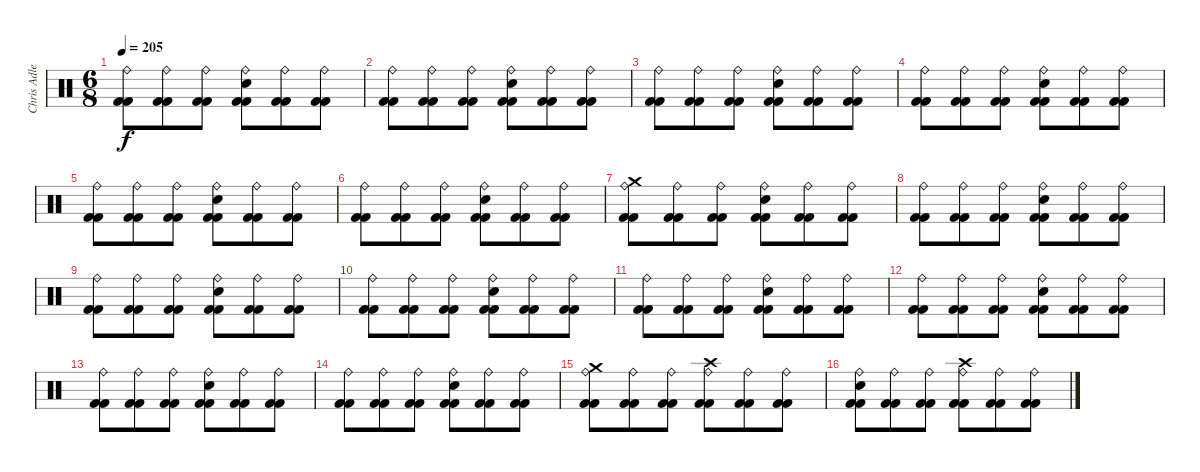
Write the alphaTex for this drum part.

\track ("Chris Adler" "Chris Adle") {instrument percussion}
\staff {score}
\articulation defaults
\ts (6 8)
\tempo 205
\clef neutral
\ks c
("Ride (bell)" "Kick (hit) 2" "Kick (hit) 2").8{dy f} ("Ride (bell)" "Kick (hit) 2" "Kick (hit) 2").8 ("Ride (bell)" "Kick (hit) 2" "Kick (hit) 2").8 ("Ride (bell)" "Electric Snare (hit)" "Kick (hit) 2" "Kick (hit) 2").8 ("Ride (bell)" "Kick (hit) 2" "Kick (hit) 2").8 ("Ride (bell)" "Kick (hit) 2" "Kick (hit) 2").8 |
("Ride (bell)" "Kick (hit) 2" "Kick (hit) 2").8 ("Ride (bell)" "Kick (hit) 2" "Kick (hit) 2").8 ("Ride (bell)" "Kick (hit) 2" "Kick (hit) 2").8 ("Ride (bell)" "Electric Snare (hit)" "Kick (hit) 2" "Kick (hit) 2").8 ("Ride (bell)" "Kick (hit) 2" "Kick (hit) 2").8 ("Ride (bell)" "Kick (hit) 2" "Kick (hit) 2").8 |
("Ride (bell)" "Kick (hit) 2" "Kick (hit) 2").8 ("Ride (bell)" "Kick (hit) 2" "Kick (hit) 2").8 ("Ride (bell)" "Kick (hit) 2" "Kick (hit) 2").8 ("Ride (bell)" "Electric Snare (hit)" "Kick (hit) 2" "Kick (hit) 2").8 ("Ride (bell)" "Kick (hit) 2" "Kick (hit) 2").8 ("Ride (bell)" "Kick (hit) 2" "Kick (hit) 2").8 |
("Ride (bell)" "Kick (hit) 2" "Kick (hit) 2").8 ("Ride (bell)" "Kick (hit) 2" "Kick (hit) 2").8 ("Ride (bell)" "Kick (hit) 2" "Kick (hit) 2").8 ("Ride (bell)" "Electric Snare (hit)" "Kick (hit) 2" "Kick (hit) 2").8 ("Ride (bell)" "Kick (hit) 2" "Kick (hit) 2").8 ("Ride (bell)" "Kick (hit) 2" "Kick (hit) 2").8 |
("Ride (bell)" "Kick (hit) 2" "Kick (hit) 2").8 ("Ride (bell)" "Kick (hit) 2" "Kick (hit) 2").8 ("Ride (bell)" "Kick (hit) 2" "Kick (hit) 2").8 ("Ride (bell)" "Electric Snare (hit)" "Kick (hit) 2" "Kick (hit) 2").8 ("Ride (bell)" "Kick (hit) 2" "Kick (hit) 2").8 ("Ride (bell)" "Kick (hit) 2" "Kick (hit) 2").8 |
("Ride (bell)" "Kick (hit) 2" "Kick (hit) 2").8 ("Ride (bell)" "Kick (hit) 2" "Kick (hit) 2").8 ("Ride (bell)" "Kick (hit) 2" "Kick (hit) 2").8 ("Ride (bell)" "Electric Snare (hit)" "Kick (hit) 2" "Kick (hit) 2").8 ("Ride (bell)" "Kick (hit) 2" "Kick (hit) 2").8 ("Ride (bell)" "Kick (hit) 2" "Kick (hit) 2").8 |
("Crash medium (hit)" "Ride (bell)" "Kick (hit) 2" "Kick (hit) 2").8 ("Ride (bell)" "Kick (hit) 2" "Kick (hit) 2").8 ("Ride (bell)" "Kick (hit) 2" "Kick (hit) 2").8 ("Ride (bell)" "Electric Snare (hit)" "Kick (hit) 2" "Kick (hit) 2").8 ("Ride (bell)" "Kick (hit) 2" "Kick (hit) 2").8 ("Ride (bell)" "Kick (hit) 2" "Kick (hit) 2").8 |
("Ride (bell)" "Kick (hit) 2" "Kick (hit) 2").8 ("Ride (bell)" "Kick (hit) 2" "Kick (hit) 2").8 ("Ride (bell)" "Kick (hit) 2" "Kick (hit) 2").8 ("Ride (bell)" "Electric Snare (hit)" "Kick (hit) 2" "Kick (hit) 2").8 ("Ride (bell)" "Kick (hit) 2" "Kick (hit) 2").8 ("Ride (bell)" "Kick (hit) 2" "Kick (hit) 2").8 |
("Ride (bell)" "Kick (hit) 2" "Kick (hit) 2").8 ("Ride (bell)" "Kick (hit) 2" "Kick (hit) 2").8 ("Ride (bell)" "Kick (hit) 2" "Kick (hit) 2").8 ("Ride (bell)" "Electric Snare (hit)" "Kick (hit) 2" "Kick (hit) 2").8 ("Ride (bell)" "Kick (hit) 2" "Kick (hit) 2").8 ("Ride (bell)" "Kick (hit) 2" "Kick (hit) 2").8 |
("Ride (bell)" "Kick (hit) 2" "Kick (hit) 2").8 ("Ride (bell)" "Kick (hit) 2" "Kick (hit) 2").8 ("Ride (bell)" "Kick (hit) 2" "Kick (hit) 2").8 ("Ride (bell)" "Electric Snare (hit)" "Kick (hit) 2" "Kick (hit) 2").8 ("Ride (bell)" "Kick (hit) 2" "Kick (hit) 2").8 ("Ride (bell)" "Kick (hit) 2" "Kick (hit) 2").8 |
("Ride (bell)" "Kick (hit) 2" "Kick (hit) 2").8 ("Ride (bell)" "Kick (hit) 2" "Kick (hit) 2").8 ("Ride (bell)" "Kick (hit) 2" "Kick (hit) 2").8 ("Ride (bell)" "Electric Snare (hit)" "Kick (hit) 2" "Kick (hit) 2").8 ("Ride (bell)" "Kick (hit) 2" "Kick (hit) 2").8 ("Ride (bell)" "Kick (hit) 2" "Kick (hit) 2").8 |
("Ride (bell)" "Kick (hit) 2" "Kick (hit) 2").8 ("Ride (bell)" "Kick (hit) 2" "Kick (hit) 2").8 ("Ride (bell)" "Kick (hit) 2" "Kick (hit) 2").8 ("Ride (bell)" "Electric Snare (hit)" "Kick (hit) 2" "Kick (hit) 2").8 ("Ride (bell)" "Kick (hit) 2" "Kick (hit) 2").8 ("Ride (bell)" "Kick (hit) 2" "Kick (hit) 2").8 |
("Ride (bell)" "Kick (hit) 2" "Kick (hit) 2").8 ("Ride (bell)" "Kick (hit) 2" "Kick (hit) 2").8 ("Ride (bell)" "Kick (hit) 2" "Kick (hit) 2").8 ("Ride (bell)" "Electric Snare (hit)" "Kick (hit) 2" "Kick (hit) 2").8 ("Ride (bell)" "Kick (hit) 2" "Kick (hit) 2").8 ("Ride (bell)" "Kick (hit) 2" "Kick (hit) 2").8 |
("Ride (bell)" "Kick (hit) 2" "Kick (hit) 2").8 ("Ride (bell)" "Kick (hit) 2" "Kick (hit) 2").8 ("Ride (bell)" "Kick (hit) 2" "Kick (hit) 2").8 ("Ride (bell)" "Electric Snare (hit)" "Kick (hit) 2" "Kick (hit) 2").8 ("Ride (bell)" "Kick (hit) 2" "Kick (hit) 2").8 ("Ride (bell)" "Kick (hit) 2" "Kick (hit) 2").8 |
("Crash medium (hit)" "Ride (bell)" "Kick (hit) 2" "Kick (hit) 2").8 ("Ride (bell)" "Kick (hit) 2" "Kick (hit) 2").8 ("Ride (bell)" "Kick (hit) 2" "Kick (hit) 2").8 ("Crash high (hit)" "Ride (bell)" "Kick (hit) 2" "Kick (hit) 2").8 ("Ride (bell)" "Kick (hit) 2" "Kick (hit) 2").8 ("Ride (bell)" "Kick (hit) 2" "Kick (hit) 2").8 |
("Ride (bell)" "Electric Snare (hit)" "Kick (hit) 2" "Kick (hit) 2").8 ("Ride (bell)" "Kick (hit) 2" "Kick (hit) 2").8 ("Ride (bell)" "Kick (hit) 2" "Kick (hit) 2").8 ("Crash high (hit)" "Ride (bell)" "Kick (hit) 2" "Kick (hit) 2").8 ("Ride (bell)" "Kick (hit) 2" "Kick (hit) 2").8 ("Ride (bell)" "Kick (hit) 2" "Kick (hit) 2").8
